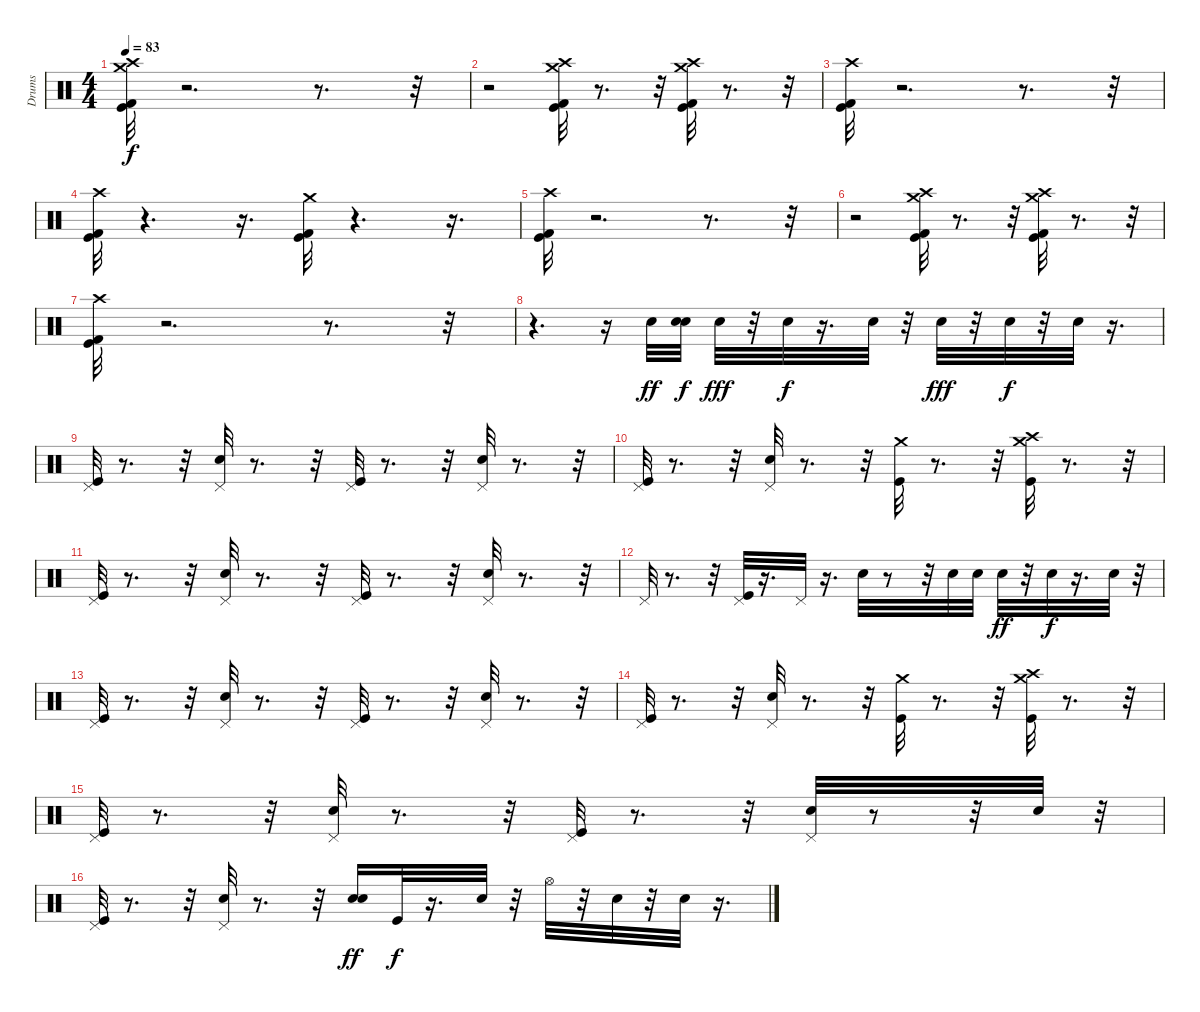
\track ("Drums" "Drums") {instrument percussion}
\staff {score}
\articulation defaults
\ts (4 4)
\tempo 83
\clef neutral
\ks c
("Crash medium (hit)" "Crash high (hit)" "Kick (hit)" "Kick (hit) 2").32{dy f} r.2{d} r.8{d} r.32 |
r.2 ("Kick (hit)" "Kick (hit) 2" "Crash high (hit)" "Crash medium (hit)").32 r.8{d} r.32 ("Kick (hit)" "Kick (hit) 2" "Crash high (hit)" "Crash medium (hit)").32 r.8{d} r.32 |
("Crash high (hit)" "Kick (hit) 2" "Kick (hit)").32 r.2{d} r.8{d} r.32 |
("Crash high (hit)" "Kick (hit) 2" "Kick (hit)").32 r.4{d} r.16{d} ("Crash medium (hit)" "Kick (hit) 2" "Kick (hit)").32 r.4{d} r.16{d} |
("Kick (hit)" "Kick (hit) 2" "Crash high (hit)").32 r.2{d} r.8{d} r.32 |
r.2 ("Kick (hit)" "Kick (hit) 2" "Crash high (hit)" "Crash medium (hit)").32 r.8{d} r.32 ("Kick (hit)" "Kick (hit) 2" "Crash high (hit)" "Crash medium (hit)").32 r.8{d} r.32 |
("Crash high (hit)" "Kick (hit) 2" "Kick (hit)").32 r.2{d} r.8{d} r.32 |
r.4{d} r.16 "Electric Snare (hit)".32{dy ff} ("Snare (hit) 2" "Snare (hit) 2").32{dy f} "Snare (hit) 2".32{dy fff} r.32 "Snare (hit) 2".32{dy f} r.16{d} "Snare (hit) 2".32 r.32 "Snare (hit) 2".32{dy fff} r.32 "Snare (hit) 2".32{dy f} r.32 "Snare (hit) 2".32 r.16{d} |
("Kick (hit)" "Pedal Hi-Hat (hit)").32 r.8{d} r.32 ("Pedal Hi-Hat (hit)" "Snare (hit) 2").32 r.8{d} r.32 ("Kick (hit)" "Pedal Hi-Hat (hit)").32 r.8{d} r.32 ("Pedal Hi-Hat (hit)" "Snare (hit) 2").32 r.8{d} r.32 |
("Pedal Hi-Hat (hit)" "Kick (hit)").32 r.8{d} r.32 ("Pedal Hi-Hat (hit)" "Snare (hit) 2").32 r.8{d} r.32 ("Crash medium (hit)" "Kick (hit)").32 r.8{d} r.32 ("Crash medium (hit)" "Crash high (hit)" "Kick (hit)").32 r.8{d} r.32 |
("Pedal Hi-Hat (hit)" "Kick (hit)").32 r.8{d} r.32 ("Pedal Hi-Hat (hit)" "Snare (hit) 2").32 r.8{d} r.32 ("Pedal Hi-Hat (hit)" "Kick (hit)").32 r.8{d} r.32 ("Pedal Hi-Hat (hit)" "Snare (hit) 2").32 r.8{d} r.32 |
"Pedal Hi-Hat (hit)".32 r.8{d} r.32 ("Kick (hit)" "Pedal Hi-Hat (hit)").32 r.16{d} "Pedal Hi-Hat (hit)".32 r.16{d} "Snare (hit) 2".32 r.8 r.32 "Snare (hit) 2".32 "Snare (hit) 2".32 "Snare (hit) 2".32{dy ff} r.32 "Snare (hit) 2".32{dy f} r.16{d} "Snare (hit) 2".32 r.32 |
("Kick (hit)" "Pedal Hi-Hat (hit)").32 r.8{d} r.32 ("Pedal Hi-Hat (hit)" "Snare (hit) 2").32 r.8{d} r.32 ("Kick (hit)" "Pedal Hi-Hat (hit)").32 r.8{d} r.32 ("Pedal Hi-Hat (hit)" "Snare (hit) 2").32 r.8{d} r.32 |
("Pedal Hi-Hat (hit)" "Kick (hit)").32 r.8{d} r.32 ("Pedal Hi-Hat (hit)" "Snare (hit) 2").32 r.8{d} r.32 ("Crash medium (hit)" "Kick (hit)").32 r.8{d} r.32 ("Crash medium (hit)" "Crash high (hit)" "Kick (hit)").32 r.8{d} r.32 |
("Pedal Hi-Hat (hit)" "Kick (hit)").32 r.8{d} r.32 ("Pedal Hi-Hat (hit)" "Snare (hit) 2").32 r.8{d} r.32 ("Pedal Hi-Hat (hit)" "Kick (hit)").32 r.8{d} r.32 ("Pedal Hi-Hat (hit)" "Snare (hit) 2").32 r.8 r.32 "Snare (hit) 2".32 r.32 |
("Pedal Hi-Hat (hit)" "Kick (hit)").32 r.8{d} r.32 ("Pedal Hi-Hat (hit)" "Snare (hit) 2").32 r.8{d} r.32 ("Snare (hit) 2" "Snare (hit) 2").16{dy ff} "Kick (hit)".32{dy f} r.16{d} "Snare (hit) 2".32 r.32 "Hi-Hat (open)".32 r.32 "Snare (hit) 2".32 r.32 "Snare (hit) 2".32 r.16{d}
